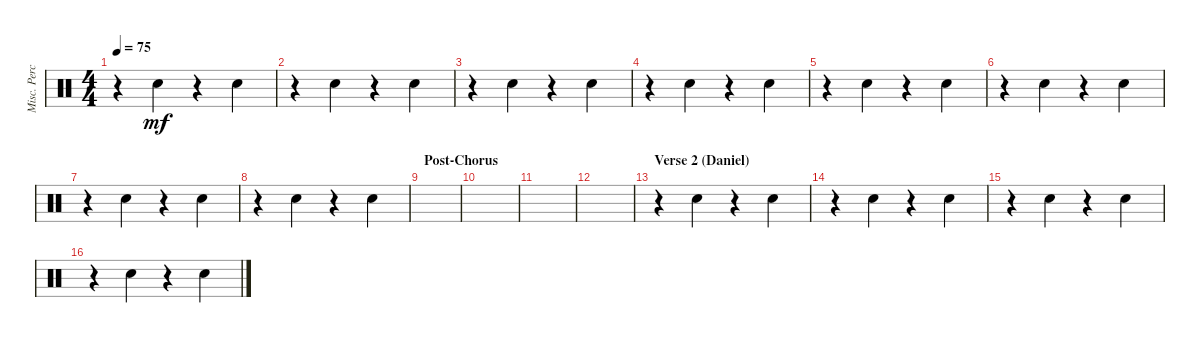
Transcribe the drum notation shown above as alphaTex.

\track ("Misc. Percussion" "Misc. Perc") {instrument percussion}
\staff {score}
\articulation defaults
\ts (4 4)
\tempo 75
\clef neutral
\ks c
r.4{dy mf} "Hand Clap (hit)".4 r.4 "Hand Clap (hit)".4 |
r.4 "Hand Clap (hit)".4 r.4 "Hand Clap (hit)".4 |
r.4 "Hand Clap (hit)".4 r.4 "Hand Clap (hit)".4 |
r.4 "Hand Clap (hit)".4 r.4 "Hand Clap (hit)".4 |
r.4 "Hand Clap (hit)".4 r.4 "Hand Clap (hit)".4 |
r.4 "Hand Clap (hit)".4 r.4 "Hand Clap (hit)".4 |
r.4 "Hand Clap (hit)".4 r.4 "Hand Clap (hit)".4 |
r.4 "Hand Clap (hit)".4 r.4 "Hand Clap (hit)".4 |
\section ("" "Post-Chorus")
|
|
|
|
\section ("" "Verse 2 (Daniel)")
r.4 "Hand Clap (hit)".4 r.4 "Hand Clap (hit)".4 |
r.4 "Hand Clap (hit)".4 r.4 "Hand Clap (hit)".4 |
r.4 "Hand Clap (hit)".4 r.4 "Hand Clap (hit)".4 |
r.4 "Hand Clap (hit)".4 r.4 "Hand Clap (hit)".4
